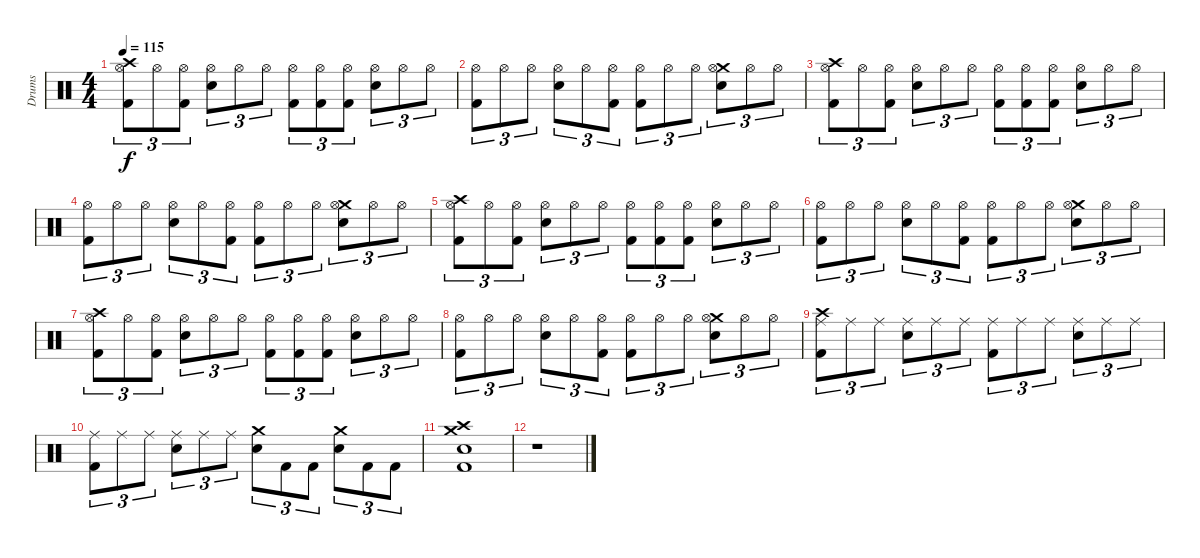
\track ("Drums" "Drums") {instrument percussion}
\staff {score}
\articulation defaults
\ts (4 4)
\tempo 115
\clef neutral
\ks c
("Crash high (hit)" "Hi-Hat (open)" "Kick (hit) 2").8{tu (3 2) dy f} "Hi-Hat (open)".8{tu (3 2)} ("Hi-Hat (open)" "Kick (hit) 2").8{tu (3 2)} ("Hi-Hat (open)" "Snare (hit) 2").8{tu (3 2)} "Hi-Hat (open)".8{tu (3 2)} "Hi-Hat (open)".8{tu (3 2)} ("Hi-Hat (open)" "Kick (hit) 2").8{tu (3 2)} ("Hi-Hat (open)" "Kick (hit) 2").8{tu (3 2)} ("Hi-Hat (open)" "Kick (hit) 2").8{tu (3 2)} ("Hi-Hat (open)" "Snare (hit) 2").8{tu (3 2)} "Hi-Hat (open)".8{tu (3 2)} "Hi-Hat (open)".8{tu (3 2)} |
("Hi-Hat (open)" "Kick (hit) 2").8{tu (3 2)} "Hi-Hat (open)".8{tu (3 2)} "Hi-Hat (open)".8{tu (3 2)} ("Hi-Hat (open)" "Snare (hit) 2").8{tu (3 2)} "Hi-Hat (open)".8{tu (3 2)} ("Hi-Hat (open)" "Kick (hit) 2").8{tu (3 2)} ("Hi-Hat (open)" "Kick (hit) 2").8{tu (3 2)} "Hi-Hat (open)".8{tu (3 2)} "Hi-Hat (open)".8{tu (3 2)} ("Crash medium (hit)" "Hi-Hat (open)" "Snare (hit) 2").8{tu (3 2)} "Hi-Hat (open)".8{tu (3 2)} "Hi-Hat (open)".8{tu (3 2)} |
("Crash high (hit)" "Hi-Hat (open)" "Kick (hit) 2").8{tu (3 2)} "Hi-Hat (open)".8{tu (3 2)} ("Hi-Hat (open)" "Kick (hit) 2").8{tu (3 2)} ("Hi-Hat (open)" "Snare (hit) 2").8{tu (3 2)} "Hi-Hat (open)".8{tu (3 2)} "Hi-Hat (open)".8{tu (3 2)} ("Hi-Hat (open)" "Kick (hit) 2").8{tu (3 2)} ("Hi-Hat (open)" "Kick (hit) 2").8{tu (3 2)} ("Hi-Hat (open)" "Kick (hit) 2").8{tu (3 2)} ("Hi-Hat (open)" "Snare (hit) 2").8{tu (3 2)} "Hi-Hat (open)".8{tu (3 2)} "Hi-Hat (open)".8{tu (3 2)} |
("Hi-Hat (open)" "Kick (hit) 2").8{tu (3 2)} "Hi-Hat (open)".8{tu (3 2)} "Hi-Hat (open)".8{tu (3 2)} ("Hi-Hat (open)" "Snare (hit) 2").8{tu (3 2)} "Hi-Hat (open)".8{tu (3 2)} ("Hi-Hat (open)" "Kick (hit) 2").8{tu (3 2)} ("Hi-Hat (open)" "Kick (hit) 2").8{tu (3 2)} "Hi-Hat (open)".8{tu (3 2)} "Hi-Hat (open)".8{tu (3 2)} ("Crash medium (hit)" "Hi-Hat (open)" "Snare (hit) 2").8{tu (3 2)} "Hi-Hat (open)".8{tu (3 2)} "Hi-Hat (open)".8{tu (3 2)} |
("Crash high (hit)" "Hi-Hat (open)" "Kick (hit) 2").8{tu (3 2)} "Hi-Hat (open)".8{tu (3 2)} ("Hi-Hat (open)" "Kick (hit) 2").8{tu (3 2)} ("Hi-Hat (open)" "Snare (hit) 2").8{tu (3 2)} "Hi-Hat (open)".8{tu (3 2)} "Hi-Hat (open)".8{tu (3 2)} ("Hi-Hat (open)" "Kick (hit) 2").8{tu (3 2)} ("Hi-Hat (open)" "Kick (hit) 2").8{tu (3 2)} ("Hi-Hat (open)" "Kick (hit) 2").8{tu (3 2)} ("Hi-Hat (open)" "Snare (hit) 2").8{tu (3 2)} "Hi-Hat (open)".8{tu (3 2)} "Hi-Hat (open)".8{tu (3 2)} |
("Hi-Hat (open)" "Kick (hit) 2").8{tu (3 2)} "Hi-Hat (open)".8{tu (3 2)} "Hi-Hat (open)".8{tu (3 2)} ("Hi-Hat (open)" "Snare (hit) 2").8{tu (3 2)} "Hi-Hat (open)".8{tu (3 2)} ("Hi-Hat (open)" "Kick (hit) 2").8{tu (3 2)} ("Hi-Hat (open)" "Kick (hit) 2").8{tu (3 2)} "Hi-Hat (open)".8{tu (3 2)} "Hi-Hat (open)".8{tu (3 2)} ("Crash medium (hit)" "Hi-Hat (open)" "Snare (hit) 2").8{tu (3 2)} "Hi-Hat (open)".8{tu (3 2)} "Hi-Hat (open)".8{tu (3 2)} |
("Crash high (hit)" "Hi-Hat (open)" "Kick (hit) 2").8{tu (3 2)} "Hi-Hat (open)".8{tu (3 2)} ("Hi-Hat (open)" "Kick (hit) 2").8{tu (3 2)} ("Hi-Hat (open)" "Snare (hit) 2").8{tu (3 2)} "Hi-Hat (open)".8{tu (3 2)} "Hi-Hat (open)".8{tu (3 2)} ("Hi-Hat (open)" "Kick (hit) 2").8{tu (3 2)} ("Hi-Hat (open)" "Kick (hit) 2").8{tu (3 2)} ("Hi-Hat (open)" "Kick (hit) 2").8{tu (3 2)} ("Hi-Hat (open)" "Snare (hit) 2").8{tu (3 2)} "Hi-Hat (open)".8{tu (3 2)} "Hi-Hat (open)".8{tu (3 2)} |
("Hi-Hat (open)" "Kick (hit) 2").8{tu (3 2)} "Hi-Hat (open)".8{tu (3 2)} "Hi-Hat (open)".8{tu (3 2)} ("Hi-Hat (open)" "Snare (hit) 2").8{tu (3 2)} "Hi-Hat (open)".8{tu (3 2)} ("Hi-Hat (open)" "Kick (hit) 2").8{tu (3 2)} ("Hi-Hat (open)" "Kick (hit) 2").8{tu (3 2)} "Hi-Hat (open)".8{tu (3 2)} "Hi-Hat (open)".8{tu (3 2)} ("Crash medium (hit)" "Hi-Hat (open)" "Snare (hit) 2").8{tu (3 2)} "Hi-Hat (open)".8{tu (3 2)} "Hi-Hat (open)".8{tu (3 2)} |
("Crash high (hit)" "Ride (middle)" "Kick (hit) 2").8{tu (3 2)} "Ride (middle)".8{tu (3 2)} "Ride (middle)".8{tu (3 2)} ("Ride (middle)" "Snare (hit) 2").8{tu (3 2)} "Ride (middle)".8{tu (3 2)} "Ride (middle)".8{tu (3 2)} ("Ride (middle)" "Kick (hit) 2").8{tu (3 2)} "Ride (middle)".8{tu (3 2)} "Ride (middle)".8{tu (3 2)} ("Ride (middle)" "Snare (hit) 2").8{tu (3 2)} "Ride (middle)".8{tu (3 2)} "Ride (middle)".8{tu (3 2)} |
("Ride (middle)" "Kick (hit) 2").8{tu (3 2)} "Ride (middle)".8{tu (3 2)} "Ride (middle)".8{tu (3 2)} ("Ride (middle)" "Snare (hit) 2").8{tu (3 2)} "Ride (middle)".8{tu (3 2)} "Ride (middle)".8{tu (3 2)} ("Crash medium (hit)" "Snare (hit) 2").8{tu (3 2)} "Kick (hit) 2".8{tu (3 2)} "Kick (hit) 2".8{tu (3 2)} ("Crash medium (hit)" "Snare (hit) 2").8{tu (3 2)} "Kick (hit) 2".8{tu (3 2)} "Kick (hit) 2".8{tu (3 2)} |
("Crash medium (hit)" "Crash high (hit)" "Snare (hit) 2" "Kick (hit) 2").1 |
r.1
